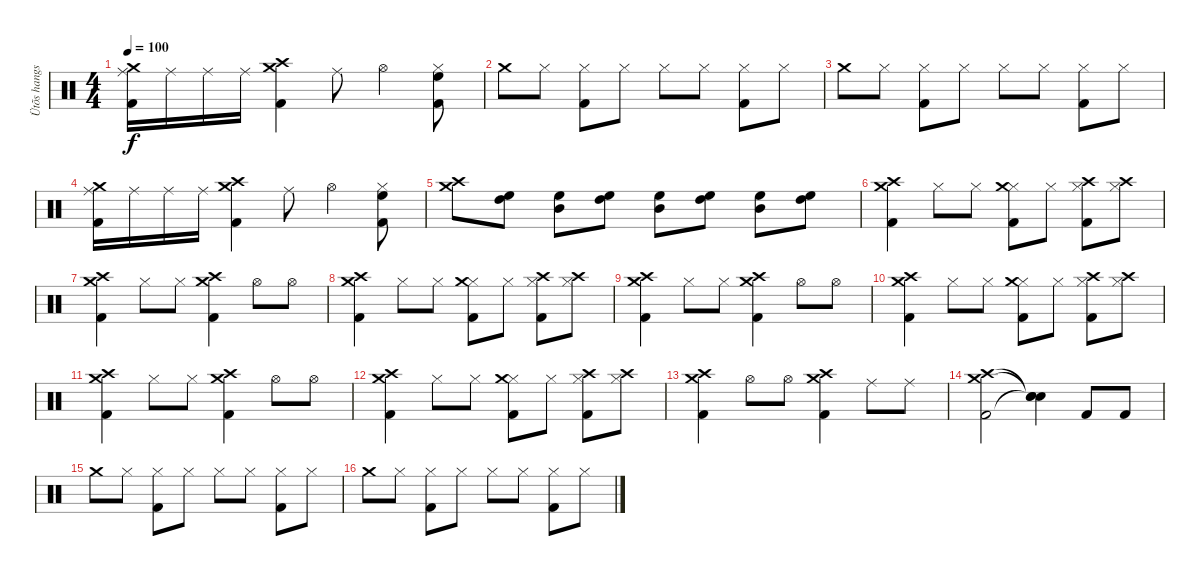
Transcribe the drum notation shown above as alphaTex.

\track ("Ütõs hangszer" "Ütõs hangs") {instrument percussion}
\staff {score}
\articulation defaults
\ts (4 4)
\tempo 100
\clef neutral
\ks c
("Crash medium (hit)" "Ride (middle)" "Kick (hit) 2").16{dy f} "Ride (middle)".16 "Ride (middle)".16 "Ride (middle)".16 ("Crash high (hit)" "Crash medium (hit)" "Kick (hit) 2").4 "Ride (middle)".8 "Hi-Hat (open)".4 ("Hi-Hat (closed)" "High Floor Tom (hit)" "Kick (hit) 2").8 |
"Crash medium (hit)".8 "Hi-Hat (closed)".8 ("Hi-Hat (closed)" "Kick (hit) 2").8 "Hi-Hat (closed)".8 "Hi-Hat (closed)".8 "Hi-Hat (closed)".8 ("Hi-Hat (closed)" "Kick (hit) 2").8 "Hi-Hat (closed)".8 |
"Crash medium (hit)".8 "Hi-Hat (closed)".8 ("Hi-Hat (closed)" "Kick (hit) 2").8 "Hi-Hat (closed)".8 "Hi-Hat (closed)".8 "Hi-Hat (closed)".8 ("Hi-Hat (closed)" "Kick (hit) 2").8 "Hi-Hat (closed)".8 |
("Crash medium (hit)" "Ride (middle)" "Kick (hit) 2").16 "Ride (middle)".16 "Ride (middle)".16 "Ride (middle)".16 ("Crash high (hit)" "Crash medium (hit)" "Kick (hit) 2").4 "Ride (middle)".8 "Hi-Hat (open)".4 ("Hi-Hat (closed)" "High Floor Tom (hit)" "Kick (hit) 2").8 |
("Crash high (hit)" "Crash medium (hit)").8 ("High Floor Tom (hit)" "High Tom (hit)").8 ("High Floor Tom (hit)" "Mid Tom (hit)").8 ("High Floor Tom (hit)" "High Tom (hit)").8 ("High Floor Tom (hit)" "Mid Tom (hit)").8 ("High Floor Tom (hit)" "High Tom (hit)").8 ("High Floor Tom (hit)" "Mid Tom (hit)").8 ("High Floor Tom (hit)" "High Tom (hit)").8 |
("Crash high (hit)" "Crash medium (hit)" "Kick (hit) 2").4 "Hi-Hat (closed)".8 "Hi-Hat (closed)".8 ("Hi-Hat (closed)" "Crash medium (hit)" "Kick (hit) 2").8 "Hi-Hat (closed)".8 ("Hi-Hat (closed)" "Crash high (hit)" "Kick (hit) 2").8 ("Hi-Hat (closed)" "Crash high (hit)").8 |
("Crash high (hit)" "Crash medium (hit)" "Kick (hit) 2").4 "Hi-Hat (closed)".8 "Hi-Hat (closed)".8 ("Crash high (hit)" "Crash medium (hit)" "Kick (hit) 2").4 "Hi-Hat (open)".8 "Hi-Hat (open)".8 |
("Crash high (hit)" "Crash medium (hit)" "Kick (hit) 2").4 "Hi-Hat (closed)".8 "Hi-Hat (closed)".8 ("Hi-Hat (closed)" "Crash medium (hit)" "Kick (hit) 2").8 "Hi-Hat (closed)".8 ("Hi-Hat (closed)" "Crash high (hit)" "Kick (hit) 2").8 ("Hi-Hat (closed)" "Crash high (hit)").8 |
("Crash high (hit)" "Crash medium (hit)" "Kick (hit) 2").4 "Hi-Hat (closed)".8 "Hi-Hat (closed)".8 ("Crash high (hit)" "Crash medium (hit)" "Kick (hit) 2").4 "Hi-Hat (open)".8 "Hi-Hat (open)".8 |
("Crash high (hit)" "Crash medium (hit)" "Kick (hit) 2").4 "Hi-Hat (closed)".8 "Hi-Hat (closed)".8 ("Hi-Hat (closed)" "Crash medium (hit)" "Kick (hit) 2").8 "Hi-Hat (closed)".8 ("Hi-Hat (closed)" "Crash high (hit)" "Kick (hit) 2").8 ("Hi-Hat (closed)" "Crash high (hit)").8 |
("Crash high (hit)" "Crash medium (hit)" "Kick (hit) 2").4 "Hi-Hat (closed)".8 "Hi-Hat (closed)".8 ("Crash high (hit)" "Crash medium (hit)" "Kick (hit) 2").4 "Hi-Hat (open)".8 "Hi-Hat (open)".8 |
("Crash high (hit)" "Crash medium (hit)" "Kick (hit) 2").4 "Hi-Hat (closed)".8 "Hi-Hat (closed)".8 ("Hi-Hat (closed)" "Crash medium (hit)" "Kick (hit) 2").8 "Hi-Hat (closed)".8 ("Hi-Hat (closed)" "Crash high (hit)" "Kick (hit) 2").8 ("Hi-Hat (closed)" "Crash high (hit)").8 |
("Crash high (hit)" "Crash medium (hit)" "Kick (hit) 2").4 "Hi-Hat (open)".8 "Hi-Hat (open)".8 ("Crash high (hit)" "Crash medium (hit)" "Kick (hit) 2").4 "Ride (middle)".8 "Ride (middle)".8 |
("Crash high (hit)" "Crash medium (hit)" "Kick (hit) 2").2 ("Snare (hit)"{t} "Snare (hit)"{t} "Snare (hit)"{t}).4 "Kick (hit) 2".8 "Kick (hit) 2".8 |
"Crash medium (hit)".8 "Hi-Hat (closed)".8 ("Hi-Hat (closed)" "Kick (hit) 2").8 "Hi-Hat (closed)".8 "Hi-Hat (closed)".8 "Hi-Hat (closed)".8 ("Hi-Hat (closed)" "Kick (hit) 2").8 "Hi-Hat (closed)".8 |
"Crash medium (hit)".8 "Hi-Hat (closed)".8 ("Hi-Hat (closed)" "Kick (hit) 2").8 "Hi-Hat (closed)".8 "Hi-Hat (closed)".8 "Hi-Hat (closed)".8 ("Hi-Hat (closed)" "Kick (hit) 2").8 "Hi-Hat (closed)".8
